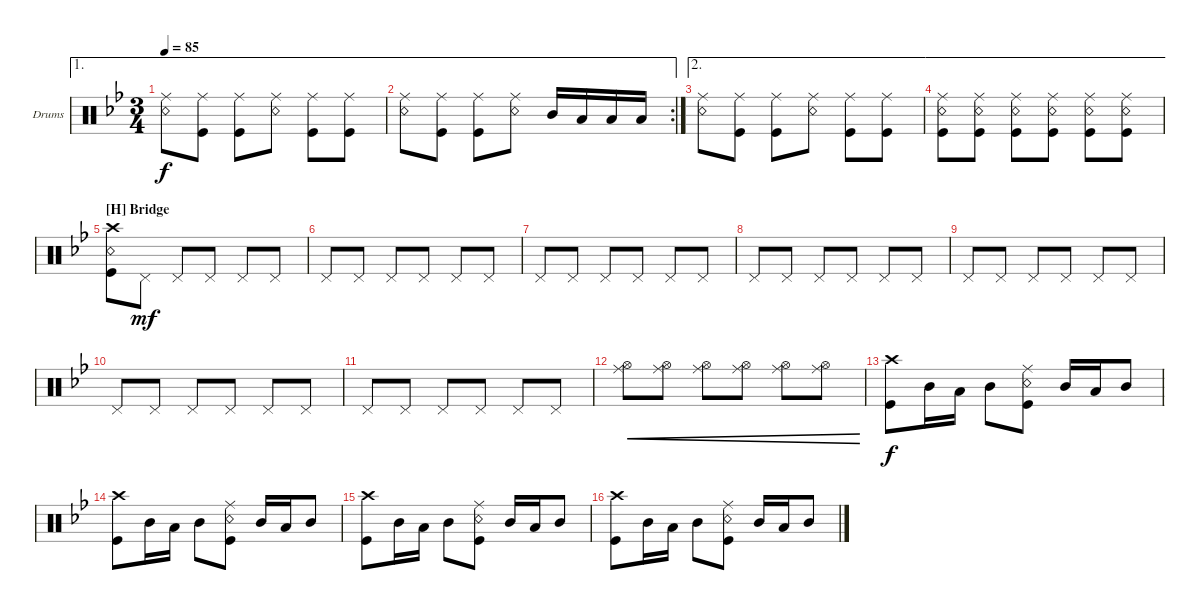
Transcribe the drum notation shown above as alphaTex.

\bracketExtendMode groupsimilarinstruments
\firstSystemTrackNameOrientation horizontal
\otherSystemsTrackNameOrientation horizontal
\track ("Drums" "Drums") {instrument percussion}
\staff {score}
\articulation defaults
\ae 1
\ts (3 4)
\tempo 85
\clef neutral
\ks bb
("Ride (middle)" "Snare (rim shot)").8{dy f} ("Ride (middle)" "Kick (hit)").8 ("Ride (middle)" "Kick (hit)").8 ("Ride (middle)" "Snare (rim shot)").8 ("Ride (middle)" "Kick (hit)").8 ("Ride (middle)" "Kick (hit)").8 |
\ae 1
\rc 2
("Ride (middle)" "Snare (rim shot)").8 ("Ride (middle)" "Kick (hit)").8 ("Ride (middle)" "Kick (hit)").8 ("Ride (middle)" "Snare (rim shot)").8 "Mid Tom (hit)".16 "Low Tom (hit)".16 "Low Tom (hit)".16 "Low Tom (hit)".16 |
\ae 2
("Ride (middle)" "Snare (rim shot)").8 ("Ride (middle)" "Kick (hit)").8 ("Ride (middle)" "Kick (hit)").8 ("Ride (middle)" "Snare (rim shot)").8 ("Ride (middle)" "Kick (hit)").8 ("Ride (middle)" "Kick (hit)").8 |
\ae 2
("Kick (hit)" "Snare (rim shot)" "Ride (middle)").8 ("Kick (hit)" "Snare (rim shot)" "Ride (middle)").8 ("Kick (hit)" "Snare (rim shot)" "Ride (middle)").8 ("Kick (hit)" "Snare (rim shot)" "Ride (middle)").8 ("Kick (hit)" "Snare (rim shot)" "Ride (middle)").8 ("Kick (hit)" "Snare (rim shot)" "Ride (middle)").8 |
\section ("H" "Bridge")
("Kick (hit)" "Snare (rim shot)" "Crash high (hit)").8 "Pedal Hi-Hat (hit)".8{dy mf} "Pedal Hi-Hat (hit)".8 "Pedal Hi-Hat (hit)".8 "Pedal Hi-Hat (hit)".8 "Pedal Hi-Hat (hit)".8 |
"Pedal Hi-Hat (hit)".8 "Pedal Hi-Hat (hit)".8 "Pedal Hi-Hat (hit)".8 "Pedal Hi-Hat (hit)".8 "Pedal Hi-Hat (hit)".8 "Pedal Hi-Hat (hit)".8 |
"Pedal Hi-Hat (hit)".8 "Pedal Hi-Hat (hit)".8 "Pedal Hi-Hat (hit)".8 "Pedal Hi-Hat (hit)".8 "Pedal Hi-Hat (hit)".8 "Pedal Hi-Hat (hit)".8 |
"Pedal Hi-Hat (hit)".8 "Pedal Hi-Hat (hit)".8 "Pedal Hi-Hat (hit)".8 "Pedal Hi-Hat (hit)".8 "Pedal Hi-Hat (hit)".8 "Pedal Hi-Hat (hit)".8 |
"Pedal Hi-Hat (hit)".8 "Pedal Hi-Hat (hit)".8 "Pedal Hi-Hat (hit)".8 "Pedal Hi-Hat (hit)".8 "Pedal Hi-Hat (hit)".8 "Pedal Hi-Hat (hit)".8 |
"Pedal Hi-Hat (hit)".8 "Pedal Hi-Hat (hit)".8 "Pedal Hi-Hat (hit)".8 "Pedal Hi-Hat (hit)".8 "Pedal Hi-Hat (hit)".8 "Pedal Hi-Hat (hit)".8 |
"Pedal Hi-Hat (hit)".8 "Pedal Hi-Hat (hit)".8 "Pedal Hi-Hat (hit)".8 "Pedal Hi-Hat (hit)".8 "Pedal Hi-Hat (hit)".8 "Pedal Hi-Hat (hit)".8 |
("Hi-Hat (open)" "Ride (middle)").8{cre} ("Hi-Hat (open)" "Ride (middle)").8{cre} ("Hi-Hat (open)" "Ride (middle)").8{cre} ("Hi-Hat (open)" "Ride (middle)").8{cre} ("Hi-Hat (open)" "Ride (middle)").8{cre} ("Hi-Hat (open)" "Ride (middle)").8{cre} |
("Kick (hit)" "Crash high (hit)").8{dy f} "Mid Tom (hit)".16 "Low Tom (hit)".16 "Mid Tom (hit)".8 ("Ride (middle)" "Snare (rim shot)" "Kick (hit)").8 "Mid Tom (hit)".16 "Low Tom (hit)".16 "Mid Tom (hit)".8 |
("Kick (hit)" "Crash high (hit)").8 "Mid Tom (hit)".16 "Low Tom (hit)".16 "Mid Tom (hit)".8 ("Ride (middle)" "Snare (rim shot)" "Kick (hit)").8 "Mid Tom (hit)".16 "Low Tom (hit)".16 "Mid Tom (hit)".8 |
("Kick (hit)" "Crash high (hit)").8 "Mid Tom (hit)".16 "Low Tom (hit)".16 "Mid Tom (hit)".8 ("Ride (middle)" "Snare (rim shot)" "Kick (hit)").8 "Mid Tom (hit)".16 "Low Tom (hit)".16 "Mid Tom (hit)".8 |
("Kick (hit)" "Crash high (hit)").8 "Mid Tom (hit)".16 "Low Tom (hit)".16 "Mid Tom (hit)".8 ("Ride (middle)" "Snare (rim shot)" "Kick (hit)").8 "Mid Tom (hit)".16 "Low Tom (hit)".16 "Mid Tom (hit)".8
